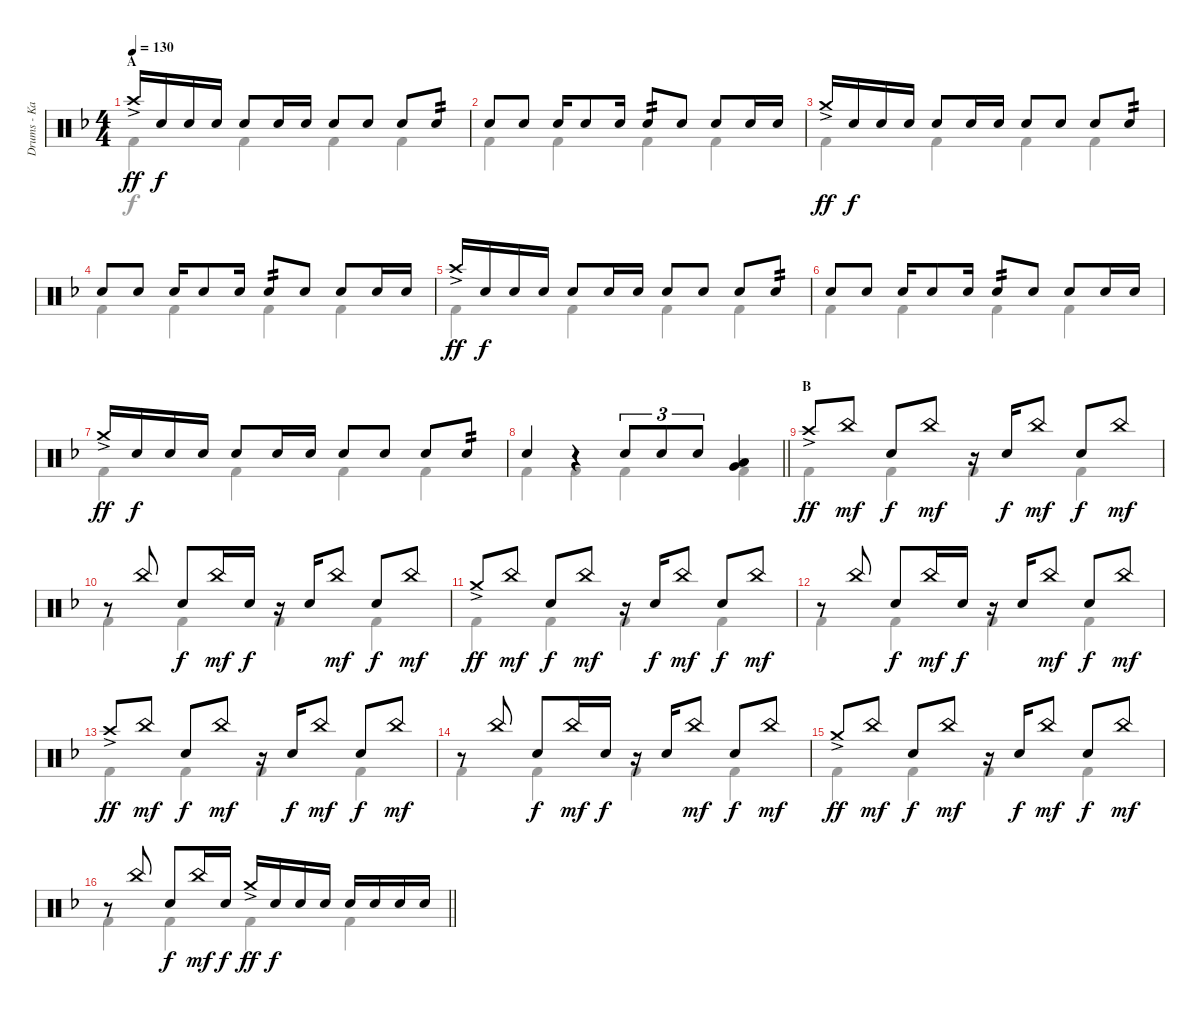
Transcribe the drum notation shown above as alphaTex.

\track ("Drums - Kai" "Drums - Ka") {instrument percussion}
\staff {score}
\articulation defaults
\voice
\ts (4 4)
\section ("" "A")
\tempo 130
\clef neutral
\ks f "Crash high (hit)"{ac}.16{dy ff} "Electric Snare (hit)".16{dy f} "Electric Snare (hit)".16 "Electric Snare (hit)".16 "Electric Snare (hit)".8 "Electric Snare (hit)".16 "Electric Snare (hit)".16 "Electric Snare (hit)".8 "Electric Snare (hit)".8 "Electric Snare (hit)".8 "Electric Snare (hit)".8{tp 2}
|
"Electric Snare (hit)".8 "Electric Snare (hit)".8 "Electric Snare (hit)".16 "Electric Snare (hit)".8 "Electric Snare (hit)".16 "Electric Snare (hit)".8{tp 2} "Electric Snare (hit)".8 "Electric Snare (hit)".8 "Electric Snare (hit)".16 "Electric Snare (hit)".16 |
"Crash medium (hit)"{ac}.16{dy ff} "Electric Snare (hit)".16{dy f} "Electric Snare (hit)".16 "Electric Snare (hit)".16 "Electric Snare (hit)".8 "Electric Snare (hit)".16 "Electric Snare (hit)".16 "Electric Snare (hit)".8 "Electric Snare (hit)".8 "Electric Snare (hit)".8 "Electric Snare (hit)".8{tp 2} |
"Electric Snare (hit)".8 "Electric Snare (hit)".8 "Electric Snare (hit)".16 "Electric Snare (hit)".8 "Electric Snare (hit)".16 "Electric Snare (hit)".8{tp 2} "Electric Snare (hit)".8 "Electric Snare (hit)".8 "Electric Snare (hit)".16 "Electric Snare (hit)".16 |
"Crash high (hit)"{ac}.16{dy ff} "Electric Snare (hit)".16{dy f} "Electric Snare (hit)".16 "Electric Snare (hit)".16 "Electric Snare (hit)".8 "Electric Snare (hit)".16 "Electric Snare (hit)".16 "Electric Snare (hit)".8 "Electric Snare (hit)".8 "Electric Snare (hit)".8 "Electric Snare (hit)".8{tp 2} |
"Electric Snare (hit)".8 "Electric Snare (hit)".8 "Electric Snare (hit)".16 "Electric Snare (hit)".8 "Electric Snare (hit)".16 "Electric Snare (hit)".8{tp 2} "Electric Snare (hit)".8 "Electric Snare (hit)".8 "Electric Snare (hit)".16 "Electric Snare (hit)".16 |
"Crash medium (hit)"{ac}.16{dy ff} "Electric Snare (hit)".16{dy f} "Electric Snare (hit)".16 "Electric Snare (hit)".16 "Electric Snare (hit)".8 "Electric Snare (hit)".16 "Electric Snare (hit)".16 "Electric Snare (hit)".8 "Electric Snare (hit)".8 "Electric Snare (hit)".8 "Electric Snare (hit)".8{tp 2} |
\barLineRight lightlight "Electric Snare (hit)".4
r.4 "Electric Snare (hit)".8{tu (3 2)} "Electric Snare (hit)".8{tu (3 2)} "Electric Snare (hit)".8{tu (3 2)} ("Low Tom (hit)" "Very Low Tom (hit)").4 |
\section ("" "B")
"Crash high (hit)"{ac}.8{dy ff} "China (hit)".8{dy mf} "Electric Snare (hit)".8{dy f} "China (hit)".8{dy mf} r.16 "Electric Snare (hit)".16{dy f} "China (hit)".8{dy mf} "Electric Snare (hit)".8{dy f} "China (hit)".8{dy mf} |
r.8 "China (hit)".8 "Electric Snare (hit)".8{dy f} "China (hit)".16{dy mf} "Electric Snare (hit)".16{dy f} r.16 "Electric Snare (hit)".16 "China (hit)".8{dy mf} "Electric Snare (hit)".8{dy f} "China (hit)".8{dy mf} |
"Crash medium (hit)"{ac}.8{dy ff} "China (hit)".8{dy mf} "Electric Snare (hit)".8{dy f} "China (hit)".8{dy mf} r.16 "Electric Snare (hit)".16{dy f} "China (hit)".8{dy mf} "Electric Snare (hit)".8{dy f} "China (hit)".8{dy mf} |
r.8 "China (hit)".8 "Electric Snare (hit)".8{dy f} "China (hit)".16{dy mf} "Electric Snare (hit)".16{dy f} r.16 "Electric Snare (hit)".16 "China (hit)".8{dy mf} "Electric Snare (hit)".8{dy f} "China (hit)".8{dy mf} |
"Crash high (hit)"{ac}.8{dy ff} "China (hit)".8{dy mf} "Electric Snare (hit)".8{dy f} "China (hit)".8{dy mf} r.16 "Electric Snare (hit)".16{dy f} "China (hit)".8{dy mf} "Electric Snare (hit)".8{dy f} "China (hit)".8{dy mf} |
r.8 "China (hit)".8 "Electric Snare (hit)".8{dy f} "China (hit)".16{dy mf} "Electric Snare (hit)".16{dy f} r.16 "Electric Snare (hit)".16 "China (hit)".8{dy mf} "Electric Snare (hit)".8{dy f} "China (hit)".8{dy mf} |
"Crash medium (hit)"{ac}.8{dy ff} "China (hit)".8{dy mf} "Electric Snare (hit)".8{dy f} "China (hit)".8{dy mf} r.16 "Electric Snare (hit)".16{dy f} "China (hit)".8{dy mf} "Electric Snare (hit)".8{dy f} "China (hit)".8{dy mf} |
\barLineRight lightlight
r.8 "China (hit)".8 "Electric Snare (hit)".8{dy f} "China (hit)".16{dy mf} "Electric Snare (hit)".16{dy f} "Crash medium (hit)"{ac}.16{dy ff} "Electric Snare (hit)".16{dy f} "Electric Snare (hit)".16 "Electric Snare (hit)".16 "Electric Snare (hit)".16 "Electric Snare (hit)".16 "Electric Snare (hit)".16 "Electric Snare (hit)".16
\voice
\clef neutral
\ottava regular
\simile none
\ks f "Kick (hit) 2".4{dy f} "Kick (hit) 2".4 "Kick (hit) 2".4 "Kick (hit) 2".4
|
"Kick (hit) 2".4 "Kick (hit) 2".4 "Kick (hit) 2".4 "Kick (hit) 2".4 |
"Kick (hit) 2".4 "Kick (hit) 2".4 "Kick (hit) 2".4 "Kick (hit) 2".4 |
"Kick (hit) 2".4 "Kick (hit) 2".4 "Kick (hit) 2".4 "Kick (hit) 2".4 |
"Kick (hit) 2".4 "Kick (hit) 2".4 "Kick (hit) 2".4 "Kick (hit) 2".4 |
"Kick (hit) 2".4 "Kick (hit) 2".4 "Kick (hit) 2".4 "Kick (hit) 2".4 |
"Kick (hit) 2".4 "Kick (hit) 2".4 "Kick (hit) 2".4 "Kick (hit) 2".4 |
\barLineRight lightlight "Kick (hit) 2".4 "Kick (hit) 2".4 "Kick (hit) 2".4 "Kick (hit) 2".4
|
"Kick (hit) 2".4 "Kick (hit) 2".4 "Kick (hit) 2".4 "Kick (hit) 2".4 |
"Kick (hit) 2".4 "Kick (hit) 2".4 "Kick (hit) 2".4 "Kick (hit) 2".4 |
"Kick (hit) 2".4 "Kick (hit) 2".4 "Kick (hit) 2".4 "Kick (hit) 2".4 |
"Kick (hit) 2".4 "Kick (hit) 2".4 "Kick (hit) 2".4 "Kick (hit) 2".4 |
"Kick (hit) 2".4 "Kick (hit) 2".4 "Kick (hit) 2".4 "Kick (hit) 2".4 |
"Kick (hit) 2".4 "Kick (hit) 2".4 "Kick (hit) 2".4 "Kick (hit) 2".4 |
"Kick (hit) 2".4 "Kick (hit) 2".4 "Kick (hit) 2".4 "Kick (hit) 2".4 |
\barLineRight lightlight "Kick (hit) 2".4 "Kick (hit) 2".4 "Kick (hit) 2".4 "Kick (hit) 2".4
